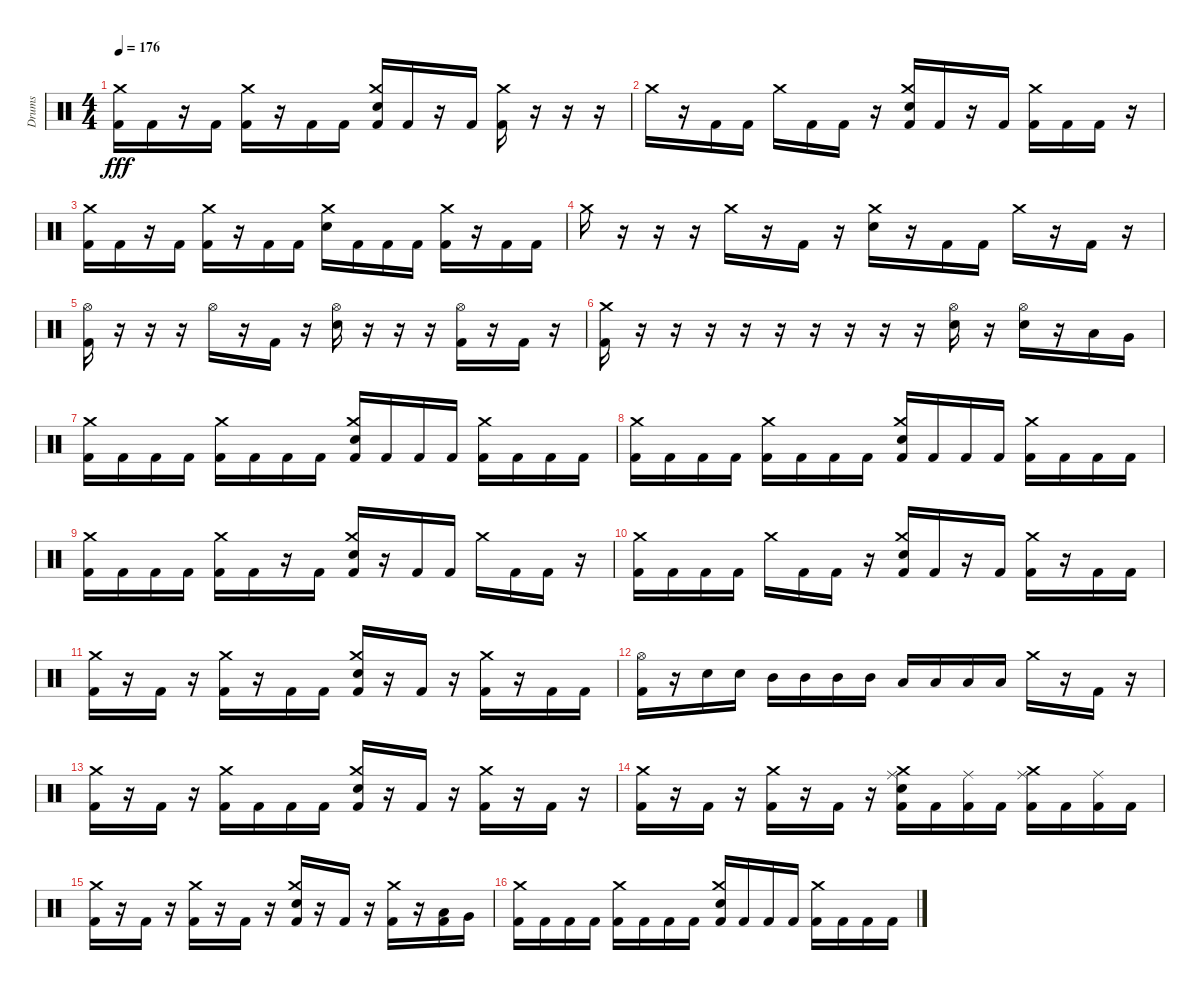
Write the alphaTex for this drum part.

\track ("Drums" "Drums") {instrument percussion}
\staff {score}
\articulation defaults
\ts (4 4)
\tempo 176
\clef neutral
\ks c
("Kick (hit) 2" "Crash medium (hit)").16{dy fff} "Kick (hit) 2".16 r.16 "Kick (hit) 2".16 ("Kick (hit) 2" "Crash medium (hit)").16 r.16 "Kick (hit) 2".16 "Kick (hit) 2".16 ("Kick (hit) 2" "Crash medium (hit)" "Electric Snare (hit)").16 "Kick (hit) 2".16 r.16 "Kick (hit) 2".16 ("Kick (hit) 2" "Crash medium (hit)").16 r.16 r.16 r.16 |
"Crash medium (hit)".16 r.16 "Kick (hit) 2".16 "Kick (hit) 2".16 "Crash medium (hit)".16 "Kick (hit) 2".16 "Kick (hit) 2".16 r.16 ("Kick (hit) 2" "Crash medium (hit)" "Electric Snare (hit)").16 "Kick (hit) 2".16 r.16 "Kick (hit) 2".16 ("Kick (hit) 2" "Crash medium (hit)").16 "Kick (hit) 2".16 "Kick (hit) 2".16 r.16 |
("Kick (hit) 2" "Crash medium (hit)").16 "Kick (hit) 2".16 r.16 "Kick (hit) 2".16 ("Kick (hit) 2" "Crash medium (hit)").16 r.16 "Kick (hit) 2".16 "Kick (hit) 2".16 ("Crash medium (hit)" "Electric Snare (hit)").16 "Kick (hit) 2".16 "Kick (hit) 2".16 "Kick (hit) 2".16 ("Kick (hit) 2" "Crash medium (hit)").16 r.16 "Kick (hit) 2".16 "Kick (hit) 2".16 |
"Crash medium (hit)".16 r.16 r.16 r.16 "Crash medium (hit)".16 r.16 "Kick (hit) 2".16 r.16 ("Crash medium (hit)" "Electric Snare (hit)").16 r.16 "Kick (hit) 2".16 "Kick (hit) 2".16 "Crash medium (hit)".16 r.16 "Kick (hit) 2".16 r.16 |
("Hi-Hat (open)" "Kick (hit) 2").16 r.16 r.16 r.16 "Hi-Hat (open)".16 r.16 "Kick (hit) 2".16 r.16 ("Hi-Hat (open)" "Electric Snare (hit)").16 r.16 r.16 r.16 ("Hi-Hat (open)" "Kick (hit) 2").16 r.16 "Kick (hit) 2".16 r.16 |
("Crash medium (hit)" "Kick (hit) 2").16 r.16 r.16 r.16 r.16 r.16 r.16 r.16 r.16 r.16 ("Hi-Hat (open)" "Electric Snare (hit)").16 r.16 ("Hi-Hat (open)" "Electric Snare (hit)").16 r.16 "Low Tom (hit)".16 "Very Low Tom (hit)".16 |
("Crash medium (hit)" "Kick (hit) 2").16 "Kick (hit) 2".16 "Kick (hit) 2".16 "Kick (hit) 2".16 ("Crash medium (hit)" "Kick (hit) 2").16 "Kick (hit) 2".16 "Kick (hit) 2".16 "Kick (hit) 2".16 ("Crash medium (hit)" "Kick (hit) 2" "Electric Snare (hit)").16 "Kick (hit) 2".16 "Kick (hit) 2".16 "Kick (hit) 2".16 ("Crash medium (hit)" "Kick (hit) 2").16 "Kick (hit) 2".16 "Kick (hit) 2".16 "Kick (hit) 2".16 |
("Crash medium (hit)" "Kick (hit) 2").16 "Kick (hit) 2".16 "Kick (hit) 2".16 "Kick (hit) 2".16 ("Crash medium (hit)" "Kick (hit) 2").16 "Kick (hit) 2".16 "Kick (hit) 2".16 "Kick (hit) 2".16 ("Crash medium (hit)" "Kick (hit) 2" "Electric Snare (hit)").16 "Kick (hit) 2".16 "Kick (hit) 2".16 "Kick (hit) 2".16 ("Crash medium (hit)" "Kick (hit) 2").16 "Kick (hit) 2".16 "Kick (hit) 2".16 "Kick (hit) 2".16 |
("Crash medium (hit)" "Kick (hit) 2").16 "Kick (hit) 2".16 "Kick (hit) 2".16 "Kick (hit) 2".16 ("Crash medium (hit)" "Kick (hit) 2").16 "Kick (hit) 2".16 r.16 "Kick (hit) 2".16 ("Crash medium (hit)" "Kick (hit) 2" "Electric Snare (hit)").16 r.16 "Kick (hit) 2".16 "Kick (hit) 2".16 "Crash medium (hit)".16 "Kick (hit) 2".16 "Kick (hit) 2".16 r.16 |
("Crash medium (hit)" "Kick (hit) 2").16 "Kick (hit) 2".16 "Kick (hit) 2".16 "Kick (hit) 2".16 "Crash medium (hit)".16 "Kick (hit) 2".16 "Kick (hit) 2".16 r.16 ("Crash medium (hit)" "Kick (hit) 2" "Electric Snare (hit)").16 "Kick (hit) 2".16 r.16 "Kick (hit) 2".16 ("Crash medium (hit)" "Kick (hit) 2").16 r.16 "Kick (hit) 2".16 "Kick (hit) 2".16 |
("Crash medium (hit)" "Kick (hit) 2").16 r.16 "Kick (hit) 2".16 r.16 ("Crash medium (hit)" "Kick (hit) 2").16 r.16 "Kick (hit) 2".16 "Kick (hit) 2".16 ("Crash medium (hit)" "Kick (hit) 2" "Electric Snare (hit)").16 r.16 "Kick (hit) 2".16 r.16 ("Crash medium (hit)" "Kick (hit) 2").16 r.16 "Kick (hit) 2".16 "Kick (hit) 2".16 |
("Hi-Hat (open)" "Kick (hit) 2").16 r.16 "Electric Snare (hit)".16 "Electric Snare (hit)".16 "Mid Tom (hit)".16 "Mid Tom (hit)".16 "Mid Tom (hit)".16 "Mid Tom (hit)".16 "Low Tom (hit)".16 "Low Tom (hit)".16 "Low Tom (hit)".16 "Low Tom (hit)".16 "Crash medium (hit)".16 r.16 "Kick (hit) 2".16 r.16 |
("Crash medium (hit)" "Kick (hit) 2").16 r.16 "Kick (hit) 2".16 r.16 ("Crash medium (hit)" "Kick (hit) 2").16 "Kick (hit) 2".16 "Kick (hit) 2".16 "Kick (hit) 2".16 ("Crash medium (hit)" "Kick (hit) 2" "Electric Snare (hit)").16 r.16 "Kick (hit) 2".16 r.16 ("Crash medium (hit)" "Kick (hit) 2").16 r.16 "Kick (hit) 2".16 r.16 |
("Crash medium (hit)" "Kick (hit) 2").16 r.16 "Kick (hit) 2".16 r.16 ("Crash medium (hit)" "Kick (hit) 2").16 r.16 "Kick (hit) 2".16 r.16 ("Crash medium (hit)" "Kick (hit) 2" "Ride (middle)" "Electric Snare (hit)").16 "Kick (hit) 2".16 ("Kick (hit) 2" "Ride (middle)").16 "Kick (hit) 2".16 ("Crash medium (hit)" "Kick (hit) 2" "Ride (middle)").16 "Kick (hit) 2".16 ("Kick (hit) 2" "Ride (middle)").16 "Kick (hit) 2".16 |
("Crash medium (hit)" "Kick (hit) 2").16 r.16 "Kick (hit) 2".16 r.16 ("Crash medium (hit)" "Kick (hit) 2").16 r.16 "Kick (hit) 2".16 r.16 ("Crash medium (hit)" "Kick (hit) 2" "Electric Snare (hit)").16 r.16 "Kick (hit) 2".16 r.16 ("Crash medium (hit)" "Kick (hit) 2").16 r.16 ("Low Tom (hit)" "Kick (hit) 2").16 "Very Low Tom (hit)".16 |
("Crash medium (hit)" "Kick (hit) 2").16 "Kick (hit) 2".16 "Kick (hit) 2".16 "Kick (hit) 2".16 ("Crash medium (hit)" "Kick (hit) 2").16 "Kick (hit) 2".16 "Kick (hit) 2".16 "Kick (hit) 2".16 ("Crash medium (hit)" "Kick (hit) 2" "Electric Snare (hit)").16 "Kick (hit) 2".16 "Kick (hit) 2".16 "Kick (hit) 2".16 ("Crash medium (hit)" "Kick (hit) 2").16 "Kick (hit) 2".16 "Kick (hit) 2".16 "Kick (hit) 2".16
